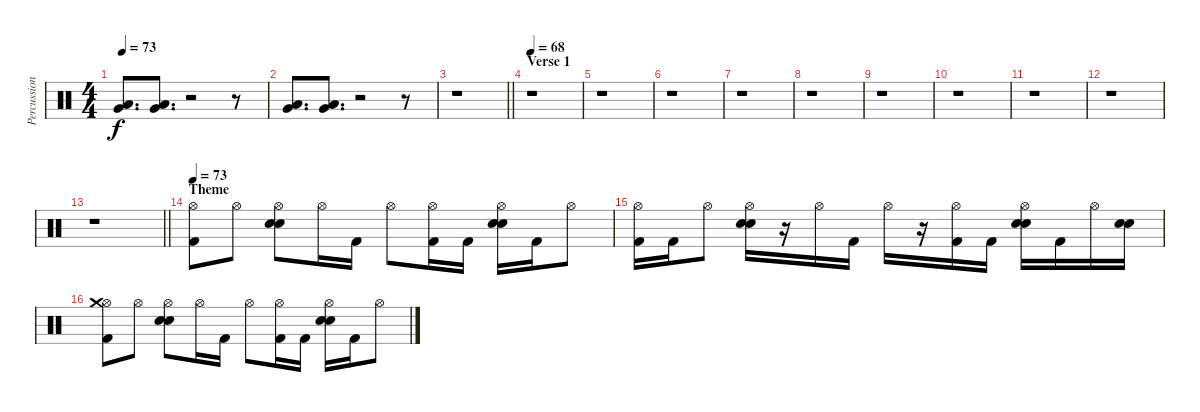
\track ("Percussion" "Percussion") {instrument percussion}
\staff {score}
\articulation defaults
\ts (4 4)
\tempo 73
\clef neutral
\ks c
("Very Low Tom (hit)" "Low Floor Tom (hit)").8{d dy f} ("Very Low Tom (hit)" "Low Floor Tom (hit)").8{d} r.2 r.8 |
("Very Low Tom (hit)" "Low Floor Tom (hit)").8{d} ("Very Low Tom (hit)" "Low Floor Tom (hit)").8{d} r.2 r.8 |
\barLineRight lightlight
r.1 |
\section ("" "Verse 1")
\tempo 68
r.1 |
r.1 |
r.1 |
r.1 |
r.1 |
r.1 |
r.1 |
r.1 |
r.1 |
\barLineRight lightlight
r.1 |
\section ("" "Theme")
\tempo 73
("Hi-Hat (open)" "Kick (hit) 2").8 "Hi-Hat (open)".8 ("Hi-Hat (open)" "Electric Snare (hit)" "Snare (hit) 2").8 "Hi-Hat (open)".16 "Kick (hit) 2".16 "Hi-Hat (open)".8 ("Hi-Hat (open)" "Kick (hit) 2").16 "Kick (hit) 2".16 ("Hi-Hat (open)" "Electric Snare (hit)" "Snare (hit) 2").16 "Kick (hit) 2".16 "Hi-Hat (open)".8 |
("Hi-Hat (open)" "Kick (hit) 2").16 "Kick (hit) 2".16 "Hi-Hat (open)".8 ("Hi-Hat (open)" "Electric Snare (hit)" "Snare (hit) 2").16 r.16 "Hi-Hat (open)".16 "Kick (hit) 2".16 "Hi-Hat (open)".16 r.16 ("Hi-Hat (open)" "Kick (hit) 2").16 "Kick (hit) 2".16 ("Hi-Hat (open)" "Electric Snare (hit)" "Snare (hit) 2").16 "Kick (hit) 2".16 "Hi-Hat (open)".16 ("Electric Snare (hit)" "Snare (hit) 2").16 |
("Hi-Hat (open)" "Crash medium (hit)" "Kick (hit) 2").8 "Hi-Hat (open)".8 ("Hi-Hat (open)" "Electric Snare (hit)" "Snare (hit) 2").8 "Hi-Hat (open)".16 "Kick (hit) 2".16 "Hi-Hat (open)".8 ("Hi-Hat (open)" "Kick (hit) 2").16 "Kick (hit) 2".16 ("Hi-Hat (open)" "Electric Snare (hit)" "Snare (hit) 2").16 "Kick (hit) 2".16 "Hi-Hat (open)".8
